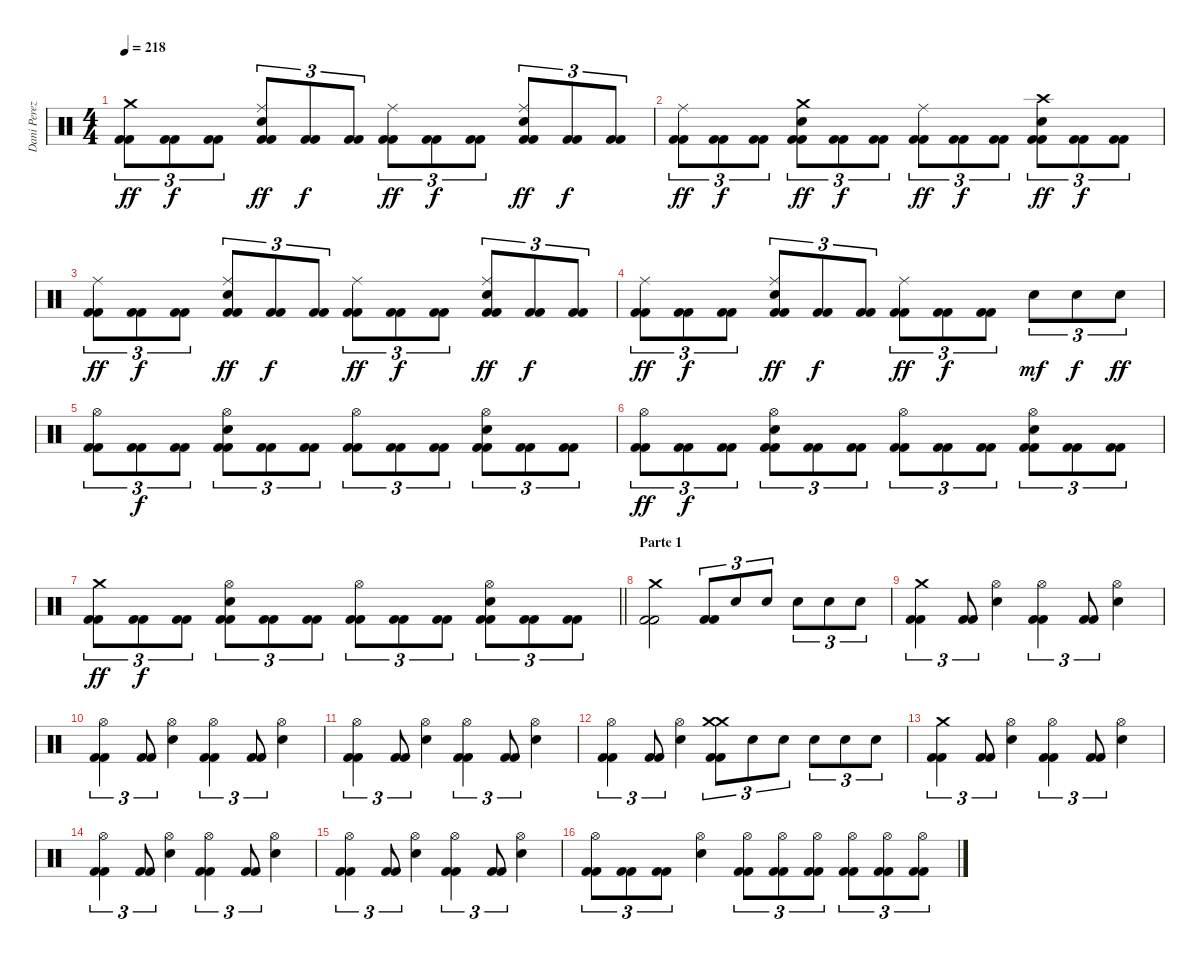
\track ("Dani Perez" "Dani Perez") {instrument percussion}
\staff {score}
\articulation defaults
\ts (4 4)
\tempo 218
\clef neutral
\ks c
("Crash medium (hit)" "Kick (hit) 2" "Kick (hit) 2").8{tu (3 2) dy ff} ("Kick (hit) 2" "Kick (hit) 2").8{tu (3 2) dy f} ("Kick (hit) 2" "Kick (hit) 2").8{tu (3 2)} ("Ride (middle)" "Snare (hit) 2" "Kick (hit) 2" "Kick (hit) 2").8{tu (3 2) dy ff} ("Kick (hit) 2" "Kick (hit) 2").8{tu (3 2) dy f} ("Kick (hit) 2" "Kick (hit) 2").8{tu (3 2)} ("Ride (middle)" "Kick (hit) 2" "Kick (hit) 2").8{tu (3 2) dy ff} ("Kick (hit) 2" "Kick (hit) 2").8{tu (3 2) dy f} ("Kick (hit) 2" "Kick (hit) 2").8{tu (3 2)} ("Ride (middle)" "Snare (hit) 2" "Kick (hit) 2" "Kick (hit) 2").8{tu (3 2) dy ff} ("Kick (hit) 2" "Kick (hit) 2").8{tu (3 2) dy f} ("Kick (hit) 2" "Kick (hit) 2").8{tu (3 2)} |
("Ride (middle)" "Kick (hit) 2" "Kick (hit) 2").8{tu (3 2) dy ff} ("Kick (hit) 2" "Kick (hit) 2").8{tu (3 2) dy f} ("Kick (hit) 2" "Kick (hit) 2").8{tu (3 2)} ("Crash medium (hit)" "Snare (hit) 2" "Kick (hit) 2" "Kick (hit) 2").8{tu (3 2) dy ff} ("Kick (hit) 2" "Kick (hit) 2").8{tu (3 2) dy f} ("Kick (hit) 2" "Kick (hit) 2").8{tu (3 2)} ("Ride (middle)" "Kick (hit) 2" "Kick (hit) 2").8{tu (3 2) dy ff} ("Kick (hit) 2" "Kick (hit) 2").8{tu (3 2) dy f} ("Kick (hit) 2" "Kick (hit) 2").8{tu (3 2)} ("Crash high (hit)" "Snare (hit) 2" "Kick (hit) 2" "Kick (hit) 2").8{tu (3 2) dy ff} ("Kick (hit) 2" "Kick (hit) 2").8{tu (3 2) dy f} ("Kick (hit) 2" "Kick (hit) 2").8{tu (3 2)} |
("Ride (middle)" "Kick (hit) 2" "Kick (hit) 2").8{tu (3 2) dy ff} ("Kick (hit) 2" "Kick (hit) 2").8{tu (3 2) dy f} ("Kick (hit) 2" "Kick (hit) 2").8{tu (3 2)} ("Ride (middle)" "Snare (hit) 2" "Kick (hit) 2" "Kick (hit) 2").8{tu (3 2) dy ff} ("Kick (hit) 2" "Kick (hit) 2").8{tu (3 2) dy f} ("Kick (hit) 2" "Kick (hit) 2").8{tu (3 2)} ("Ride (middle)" "Kick (hit) 2" "Kick (hit) 2").8{tu (3 2) dy ff} ("Kick (hit) 2" "Kick (hit) 2").8{tu (3 2) dy f} ("Kick (hit) 2" "Kick (hit) 2").8{tu (3 2)} ("Ride (middle)" "Snare (hit) 2" "Kick (hit) 2" "Kick (hit) 2").8{tu (3 2) dy ff} ("Kick (hit) 2" "Kick (hit) 2").8{tu (3 2) dy f} ("Kick (hit) 2" "Kick (hit) 2").8{tu (3 2)} |
("Ride (middle)" "Kick (hit) 2" "Kick (hit) 2").8{tu (3 2) dy ff} ("Kick (hit) 2" "Kick (hit) 2").8{tu (3 2) dy f} ("Kick (hit) 2" "Kick (hit) 2").8{tu (3 2)} ("Ride (middle)" "Snare (hit) 2" "Kick (hit) 2" "Kick (hit) 2").8{tu (3 2) dy ff} ("Kick (hit) 2" "Kick (hit) 2").8{tu (3 2) dy f} ("Kick (hit) 2" "Kick (hit) 2").8{tu (3 2)} ("Ride (middle)" "Kick (hit) 2" "Kick (hit) 2").8{tu (3 2) dy ff} ("Kick (hit) 2" "Kick (hit) 2").8{tu (3 2) dy f} ("Kick (hit) 2" "Kick (hit) 2").8{tu (3 2)} "Snare (hit) 2".8{tu (3 2) dy mf} "Snare (hit) 2".8{tu (3 2) dy f} "Snare (hit) 2".8{tu (3 2) dy ff} |
("Hi-Hat (open)" "Kick (hit) 2" "Kick (hit) 2").8{tu (3 2)} ("Kick (hit) 2" "Kick (hit) 2").8{tu (3 2) dy f} ("Kick (hit) 2" "Kick (hit) 2").8{tu (3 2)} ("Hi-Hat (open)" "Snare (hit) 2" "Kick (hit) 2" "Kick (hit) 2").8{tu (3 2)} ("Kick (hit) 2" "Kick (hit) 2").8{tu (3 2)} ("Kick (hit) 2" "Kick (hit) 2").8{tu (3 2)} ("Hi-Hat (open)" "Kick (hit) 2" "Kick (hit) 2").8{tu (3 2)} ("Kick (hit) 2" "Kick (hit) 2").8{tu (3 2)} ("Kick (hit) 2" "Kick (hit) 2").8{tu (3 2)} ("Hi-Hat (open)" "Snare (hit) 2" "Kick (hit) 2" "Kick (hit) 2").8{tu (3 2)} ("Kick (hit) 2" "Kick (hit) 2").8{tu (3 2)} ("Kick (hit) 2" "Kick (hit) 2").8{tu (3 2)} |
("Hi-Hat (open)" "Kick (hit) 2" "Kick (hit) 2").8{tu (3 2) dy ff} ("Kick (hit) 2" "Kick (hit) 2").8{tu (3 2) dy f} ("Kick (hit) 2" "Kick (hit) 2").8{tu (3 2)} ("Hi-Hat (open)" "Snare (hit) 2" "Kick (hit) 2" "Kick (hit) 2").8{tu (3 2)} ("Kick (hit) 2" "Kick (hit) 2").8{tu (3 2)} ("Kick (hit) 2" "Kick (hit) 2").8{tu (3 2)} ("Hi-Hat (open)" "Kick (hit) 2" "Kick (hit) 2").8{tu (3 2)} ("Kick (hit) 2" "Kick (hit) 2").8{tu (3 2)} ("Kick (hit) 2" "Kick (hit) 2").8{tu (3 2)} ("Hi-Hat (open)" "Snare (hit) 2" "Kick (hit) 2" "Kick (hit) 2").8{tu (3 2)} ("Kick (hit) 2" "Kick (hit) 2").8{tu (3 2)} ("Kick (hit) 2" "Kick (hit) 2").8{tu (3 2)} |
\barLineRight lightlight
("Crash medium (hit)" "Kick (hit) 2" "Kick (hit) 2").8{tu (3 2) dy ff} ("Kick (hit) 2" "Kick (hit) 2").8{tu (3 2) dy f} ("Kick (hit) 2" "Kick (hit) 2").8{tu (3 2)} ("Hi-Hat (open)" "Snare (hit) 2" "Kick (hit) 2" "Kick (hit) 2").8{tu (3 2)} ("Kick (hit) 2" "Kick (hit) 2").8{tu (3 2)} ("Kick (hit) 2" "Kick (hit) 2").8{tu (3 2)} ("Hi-Hat (open)" "Kick (hit) 2" "Kick (hit) 2").8{tu (3 2)} ("Kick (hit) 2" "Kick (hit) 2").8{tu (3 2)} ("Kick (hit) 2" "Kick (hit) 2").8{tu (3 2)} ("Hi-Hat (open)" "Snare (hit) 2" "Kick (hit) 2" "Kick (hit) 2").8{tu (3 2)} ("Kick (hit) 2" "Kick (hit) 2").8{tu (3 2)} ("Kick (hit) 2" "Kick (hit) 2").8{tu (3 2)} |
\section ("" "Parte 1")
("Crash medium (hit)" "Kick (hit) 2" "Kick (hit) 2").2 ("Kick (hit) 2" "Kick (hit) 2").8{tu (3 2)} "Snare (hit) 2".8{tu (3 2)} "Snare (hit) 2".8{tu (3 2)} "Snare (hit) 2".8{tu (3 2)} "Snare (hit) 2".8{tu (3 2)} "Snare (hit) 2".8{tu (3 2)} |
("Crash medium (hit)" "Kick (hit) 2" "Kick (hit) 2").4{tu (3 2)} ("Kick (hit) 2" "Kick (hit) 2").8{tu (3 2)} ("Hi-Hat (open)" "Snare (hit) 2").4 ("Hi-Hat (open)" "Kick (hit) 2" "Kick (hit) 2").4{tu (3 2)} ("Kick (hit) 2" "Kick (hit) 2").8{tu (3 2)} ("Hi-Hat (open)" "Snare (hit) 2").4 |
("Hi-Hat (open)" "Kick (hit) 2" "Kick (hit) 2").4{tu (3 2)} ("Kick (hit) 2" "Kick (hit) 2").8{tu (3 2)} ("Hi-Hat (open)" "Snare (hit) 2").4 ("Hi-Hat (open)" "Kick (hit) 2" "Kick (hit) 2").4{tu (3 2)} ("Kick (hit) 2" "Kick (hit) 2").8{tu (3 2)} ("Hi-Hat (open)" "Snare (hit) 2").4 |
("Hi-Hat (open)" "Kick (hit) 2" "Kick (hit) 2").4{tu (3 2)} ("Kick (hit) 2" "Kick (hit) 2").8{tu (3 2)} ("Hi-Hat (open)" "Snare (hit) 2").4 ("Hi-Hat (open)" "Kick (hit) 2" "Kick (hit) 2").4{tu (3 2)} ("Kick (hit) 2" "Kick (hit) 2").8{tu (3 2)} ("Hi-Hat (open)" "Snare (hit) 2").4 |
("Hi-Hat (open)" "Kick (hit) 2" "Kick (hit) 2").4{tu (3 2)} ("Kick (hit) 2" "Kick (hit) 2").8{tu (3 2)} ("Snare (hit) 2" "Hi-Hat (open)").4 ("Crash medium (hit)" "Crash medium (hit)" "Kick (hit) 2" "Kick (hit) 2").8{tu (3 2)} "Snare (hit) 2".8{tu (3 2)} "Snare (hit) 2".8{tu (3 2)} "Snare (hit) 2".8{tu (3 2)} "Snare (hit) 2".8{tu (3 2)} "Snare (hit) 2".8{tu (3 2)} |
("Crash medium (hit)" "Kick (hit) 2" "Kick (hit) 2").4{tu (3 2)} ("Kick (hit) 2" "Kick (hit) 2").8{tu (3 2)} ("Hi-Hat (open)" "Snare (hit) 2").4 ("Hi-Hat (open)" "Kick (hit) 2" "Kick (hit) 2").4{tu (3 2)} ("Kick (hit) 2" "Kick (hit) 2").8{tu (3 2)} ("Hi-Hat (open)" "Snare (hit) 2").4 |
("Hi-Hat (open)" "Kick (hit) 2" "Kick (hit) 2").4{tu (3 2)} ("Kick (hit) 2" "Kick (hit) 2").8{tu (3 2)} ("Hi-Hat (open)" "Snare (hit) 2").4 ("Hi-Hat (open)" "Kick (hit) 2" "Kick (hit) 2").4{tu (3 2)} ("Kick (hit) 2" "Kick (hit) 2").8{tu (3 2)} ("Hi-Hat (open)" "Snare (hit) 2").4 |
("Hi-Hat (open)" "Kick (hit) 2" "Kick (hit) 2").4{tu (3 2)} ("Kick (hit) 2" "Kick (hit) 2").8{tu (3 2)} ("Hi-Hat (open)" "Snare (hit) 2").4 ("Hi-Hat (open)" "Kick (hit) 2" "Kick (hit) 2").4{tu (3 2)} ("Kick (hit) 2" "Kick (hit) 2").8{tu (3 2)} ("Hi-Hat (open)" "Snare (hit) 2").4 |
("Hi-Hat (open)" "Kick (hit) 2" "Kick (hit) 2").8{tu (3 2)} ("Kick (hit) 2" "Kick (hit) 2").8{tu (3 2)} ("Kick (hit) 2" "Kick (hit) 2").8{tu (3 2)} ("Snare (hit) 2" "Hi-Hat (open)").4 ("Hi-Hat (open)" "Kick (hit) 2" "Kick (hit) 2").8{tu (3 2)} ("Hi-Hat (open)" "Kick (hit) 2" "Kick (hit) 2").8{tu (3 2)} ("Hi-Hat (open)" "Kick (hit) 2" "Kick (hit) 2").8{tu (3 2)} ("Hi-Hat (open)" "Kick (hit) 2" "Kick (hit) 2").8{tu (3 2)} ("Hi-Hat (open)" "Kick (hit) 2" "Kick (hit) 2").8{tu (3 2)} ("Hi-Hat (open)" "Kick (hit) 2" "Kick (hit) 2").8{tu (3 2)}
